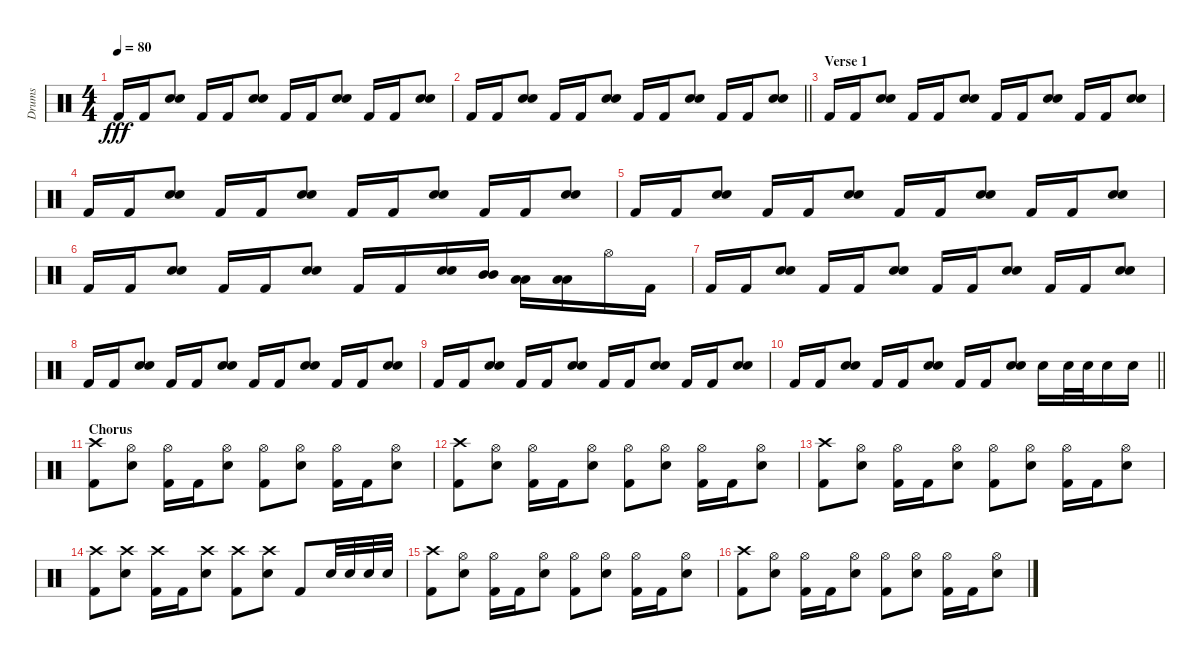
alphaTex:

\track ("Drums" "Drums") {instrument percussion}
\staff {score}
\articulation defaults
\ts (4 4)
\tempo 80
\clef neutral
\ks c "Kick (hit) 2".16{dy fff} "Kick (hit) 2".16
("Snare (hit) 2" "Snare (hit) 2").8 "Kick (hit) 2".16 "Kick (hit) 2".16 ("Snare (hit) 2" "Snare (hit) 2").8 "Kick (hit) 2".16 "Kick (hit) 2".16 ("Snare (hit) 2" "Snare (hit) 2").8 "Kick (hit) 2".16 "Kick (hit) 2".16 ("Snare (hit) 2" "Snare (hit) 2").8 |
\barLineRight lightlight "Kick (hit) 2".16 "Kick (hit) 2".16
("Snare (hit) 2" "Snare (hit) 2").8 "Kick (hit) 2".16 "Kick (hit) 2".16 ("Snare (hit) 2" "Snare (hit) 2").8 "Kick (hit) 2".16 "Kick (hit) 2".16 ("Snare (hit) 2" "Snare (hit) 2").8 "Kick (hit) 2".16 "Kick (hit) 2".16 ("Snare (hit) 2" "Snare (hit) 2").8 |
\section ("" "Verse 1")
"Kick (hit) 2".16 "Kick (hit) 2".16 ("Snare (hit) 2" "Snare (hit) 2").8 "Kick (hit) 2".16 "Kick (hit) 2".16 ("Snare (hit) 2" "Snare (hit) 2").8 "Kick (hit) 2".16 "Kick (hit) 2".16 ("Snare (hit) 2" "Snare (hit) 2").8 "Kick (hit) 2".16 "Kick (hit) 2".16 ("Snare (hit) 2" "Snare (hit) 2").8 |
"Kick (hit) 2".16 "Kick (hit) 2".16 ("Snare (hit) 2" "Snare (hit) 2").8 "Kick (hit) 2".16 "Kick (hit) 2".16 ("Snare (hit) 2" "Snare (hit) 2").8 "Kick (hit) 2".16 "Kick (hit) 2".16 ("Snare (hit) 2" "Snare (hit) 2").8 "Kick (hit) 2".16 "Kick (hit) 2".16 ("Snare (hit) 2" "Snare (hit) 2").8 |
"Kick (hit) 2".16 "Kick (hit) 2".16 ("Snare (hit) 2" "Snare (hit) 2").8 "Kick (hit) 2".16 "Kick (hit) 2".16 ("Snare (hit) 2" "Snare (hit) 2").8 "Kick (hit) 2".16 "Kick (hit) 2".16 ("Snare (hit) 2" "Snare (hit) 2").8 "Kick (hit) 2".16 "Kick (hit) 2".16 ("Snare (hit) 2" "Snare (hit) 2").8 |
"Kick (hit) 2".16 "Kick (hit) 2".16 ("Snare (hit) 2" "Snare (hit) 2").8 "Kick (hit) 2".16 "Kick (hit) 2".16 ("Snare (hit) 2" "Snare (hit) 2").8 "Kick (hit) 2".16 "Kick (hit) 2".16 ("Snare (hit) 2" "Snare (hit) 2").16 ("Mid Tom (hit)" "Mid Tom (hit)").16 ("Low Tom (hit)" "Low Tom (hit)").16 ("Low Floor Tom (hit)" "Low Floor Tom (hit)").16 "Hi-Hat (open)".16 "Kick (hit) 2".16 |
"Kick (hit) 2".16 "Kick (hit) 2".16 ("Snare (hit) 2" "Snare (hit) 2").8 "Kick (hit) 2".16 "Kick (hit) 2".16 ("Snare (hit) 2" "Snare (hit) 2").8 "Kick (hit) 2".16 "Kick (hit) 2".16 ("Snare (hit) 2" "Snare (hit) 2").8 "Kick (hit) 2".16 "Kick (hit) 2".16 ("Snare (hit) 2" "Snare (hit) 2").8 |
"Kick (hit) 2".16 "Kick (hit) 2".16 ("Snare (hit) 2" "Snare (hit) 2").8 "Kick (hit) 2".16 "Kick (hit) 2".16 ("Snare (hit) 2" "Snare (hit) 2").8 "Kick (hit) 2".16 "Kick (hit) 2".16 ("Snare (hit) 2" "Snare (hit) 2").8 "Kick (hit) 2".16 "Kick (hit) 2".16 ("Snare (hit) 2" "Snare (hit) 2").8 |
"Kick (hit) 2".16 "Kick (hit) 2".16 ("Snare (hit) 2" "Snare (hit) 2").8 "Kick (hit) 2".16 "Kick (hit) 2".16 ("Snare (hit) 2" "Snare (hit) 2").8 "Kick (hit) 2".16 "Kick (hit) 2".16 ("Snare (hit) 2" "Snare (hit) 2").8 "Kick (hit) 2".16 "Kick (hit) 2".16 ("Snare (hit) 2" "Snare (hit) 2").8 |
\barLineRight lightlight "Kick (hit) 2".16 "Kick (hit) 2".16
("Snare (hit) 2" "Snare (hit) 2").8 "Kick (hit) 2".16 "Kick (hit) 2".16 ("Snare (hit) 2" "Snare (hit) 2").8 "Kick (hit) 2".16 "Kick (hit) 2".16 ("Snare (hit) 2" "Snare (hit) 2").8 "Snare (hit) 2".16 "Snare (hit) 2".32 "Snare (hit) 2".32 "Snare (hit) 2".16 "Snare (hit) 2".16 |
\section ("" "Chorus")
("Crash high (hit)" "Kick (hit) 2").8 ("Hi-Hat (open)" "Snare (hit) 2").8 ("Hi-Hat (open)" "Kick (hit) 2").16 "Kick (hit) 2".16 ("Hi-Hat (open)" "Snare (hit) 2").8 ("Hi-Hat (open)" "Kick (hit) 2").8 ("Hi-Hat (open)" "Snare (hit) 2").8 ("Hi-Hat (open)" "Kick (hit) 2").16 "Kick (hit) 2".16 ("Hi-Hat (open)" "Snare (hit) 2").8 |
("Crash high (hit)" "Kick (hit) 2").8 ("Hi-Hat (open)" "Snare (hit) 2").8 ("Hi-Hat (open)" "Kick (hit) 2").16 "Kick (hit) 2".16 ("Hi-Hat (open)" "Snare (hit) 2").8 ("Hi-Hat (open)" "Kick (hit) 2").8 ("Hi-Hat (open)" "Snare (hit) 2").8 ("Hi-Hat (open)" "Kick (hit) 2").16 "Kick (hit) 2".16 ("Hi-Hat (open)" "Snare (hit) 2").8 |
("Crash high (hit)" "Kick (hit) 2").8 ("Hi-Hat (open)" "Snare (hit) 2").8 ("Hi-Hat (open)" "Kick (hit) 2").16 "Kick (hit) 2".16 ("Hi-Hat (open)" "Snare (hit) 2").8 ("Hi-Hat (open)" "Kick (hit) 2").8 ("Hi-Hat (open)" "Snare (hit) 2").8 ("Hi-Hat (open)" "Kick (hit) 2").16 "Kick (hit) 2".16 ("Hi-Hat (open)" "Snare (hit) 2").8 |
("Crash high (hit)" "Kick (hit) 2").8 ("Crash high (hit)" "Snare (hit) 2").8 ("Crash high (hit)" "Kick (hit) 2").16 "Kick (hit) 2".16 ("Crash high (hit)" "Snare (hit) 2").8 ("Crash high (hit)" "Kick (hit) 2").8 ("Crash high (hit)" "Snare (hit) 2").8 "Kick (hit) 2".8 "Snare (hit) 2".32 "Snare (hit) 2".32 "Snare (hit) 2".32 "Snare (hit) 2".32 |
("Crash high (hit)" "Kick (hit) 2").8 ("Hi-Hat (open)" "Snare (hit) 2").8 ("Hi-Hat (open)" "Kick (hit) 2").16 "Kick (hit) 2".16 ("Hi-Hat (open)" "Snare (hit) 2").8 ("Hi-Hat (open)" "Kick (hit) 2").8 ("Hi-Hat (open)" "Snare (hit) 2").8 ("Hi-Hat (open)" "Kick (hit) 2").16 "Kick (hit) 2".16 ("Hi-Hat (open)" "Snare (hit) 2").8 |
("Crash high (hit)" "Kick (hit) 2").8 ("Hi-Hat (open)" "Snare (hit) 2").8 ("Hi-Hat (open)" "Kick (hit) 2").16 "Kick (hit) 2".16 ("Hi-Hat (open)" "Snare (hit) 2").8 ("Hi-Hat (open)" "Kick (hit) 2").8 ("Hi-Hat (open)" "Snare (hit) 2").8 ("Hi-Hat (open)" "Kick (hit) 2").16 "Kick (hit) 2".16 ("Hi-Hat (open)" "Snare (hit) 2").8
